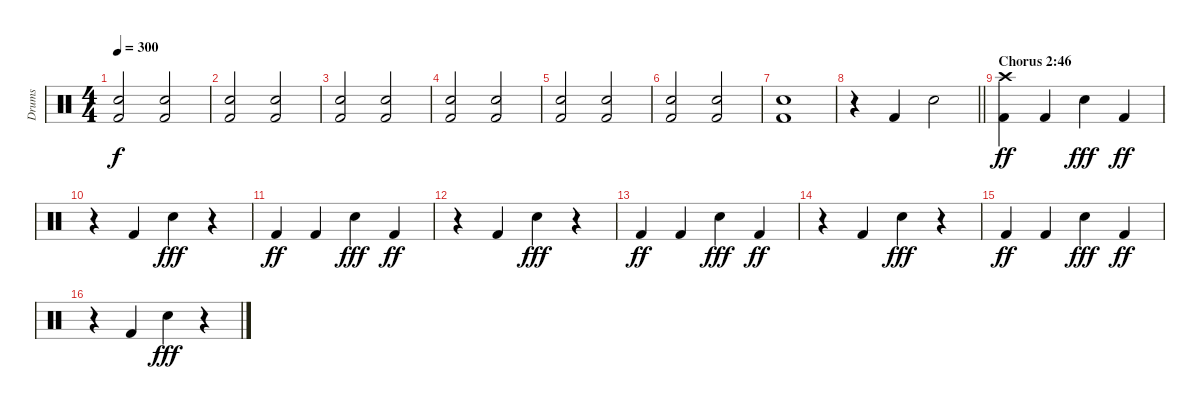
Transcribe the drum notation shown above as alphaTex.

\track ("Drums" "Drums") {instrument percussion}
\staff {score}
\articulation defaults
\ts (4 4)
\tempo 300
\clef neutral
\ks c
("Electric Snare (hit)" "Kick (hit) 2").2{dy f} ("Electric Snare (hit)" "Kick (hit) 2").2 |
("Electric Snare (hit)" "Kick (hit) 2").2 ("Electric Snare (hit)" "Kick (hit) 2").2 |
("Electric Snare (hit)" "Kick (hit) 2").2 ("Electric Snare (hit)" "Kick (hit) 2").2 |
("Electric Snare (hit)" "Kick (hit) 2").2 ("Electric Snare (hit)" "Kick (hit) 2").2 |
("Electric Snare (hit)" "Kick (hit) 2").2 ("Electric Snare (hit)" "Kick (hit) 2").2 |
("Electric Snare (hit)" "Kick (hit) 2").2 ("Electric Snare (hit)" "Kick (hit) 2").2 |
("Electric Snare (hit)" "Kick (hit) 2").1 |
\barLineRight lightlight
r.4 "Kick (hit) 2".4 "Electric Snare (hit)".2 |
\section ("" "Chorus 2:46")
("Crash high (hit)" "Kick (hit) 2").4{dy ff} "Kick (hit) 2".4 "Electric Snare (hit)".4{dy fff} "Kick (hit) 2".4{dy ff} |
r.4 "Kick (hit) 2".4 "Electric Snare (hit)".4{dy fff} r.4 |
"Kick (hit) 2".4{dy ff} "Kick (hit) 2".4 "Electric Snare (hit)".4{dy fff} "Kick (hit) 2".4{dy ff} |
r.4 "Kick (hit) 2".4 "Electric Snare (hit)".4{dy fff} r.4 |
"Kick (hit) 2".4{dy ff} "Kick (hit) 2".4 "Electric Snare (hit)".4{dy fff} "Kick (hit) 2".4{dy ff} |
r.4 "Kick (hit) 2".4 "Electric Snare (hit)".4{dy fff} r.4 |
"Kick (hit) 2".4{dy ff} "Kick (hit) 2".4 "Electric Snare (hit)".4{dy fff} "Kick (hit) 2".4{dy ff} |
r.4 "Kick (hit) 2".4 "Electric Snare (hit)".4{dy fff} r.4
